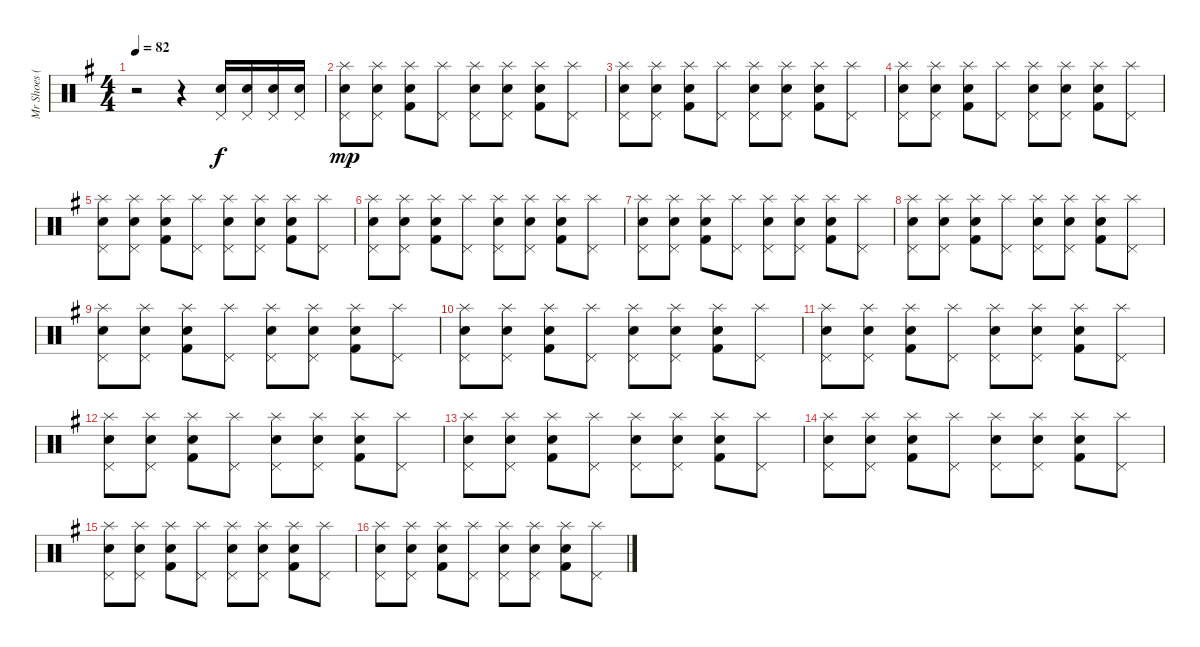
\track ("Mr Shoes (batterie)" "Mr Shoes (") {instrument percussion}
\staff {score}
\articulation defaults
\ts (4 4)
\tempo 82
\clef neutral
\ks g
r.2{dy mp} r.4 ("Electric Snare (hit)" "Pedal Hi-Hat (hit)").16{dy f} ("Electric Snare (hit)" "Pedal Hi-Hat (hit)").16 ("Electric Snare (hit)" "Pedal Hi-Hat (hit)").16 ("Electric Snare (hit)" "Pedal Hi-Hat (hit)").16 |
("Electric Snare (hit)" "Pedal Hi-Hat (hit)" "Splash (hit)").8{dy mp} ("Electric Snare (hit)" "Pedal Hi-Hat (hit)" "Splash (hit)").8 ("Kick (hit) 2" "Snare (hit) 2" "Splash (hit)").8 ("Pedal Hi-Hat (hit)" "Splash (hit)").8 ("Electric Snare (hit)" "Pedal Hi-Hat (hit)" "Splash (hit)").8 ("Electric Snare (hit)" "Pedal Hi-Hat (hit)" "Splash (hit)").8 ("Kick (hit) 2" "Snare (hit) 2" "Splash (hit)").8 ("Pedal Hi-Hat (hit)" "Splash (hit)").8 |
("Electric Snare (hit)" "Pedal Hi-Hat (hit)" "Splash (hit)").8 ("Electric Snare (hit)" "Pedal Hi-Hat (hit)" "Splash (hit)").8 ("Kick (hit) 2" "Snare (hit) 2" "Splash (hit)").8 ("Pedal Hi-Hat (hit)" "Splash (hit)").8 ("Electric Snare (hit)" "Pedal Hi-Hat (hit)" "Splash (hit)").8 ("Electric Snare (hit)" "Pedal Hi-Hat (hit)" "Splash (hit)").8 ("Kick (hit) 2" "Snare (hit) 2" "Splash (hit)").8 ("Pedal Hi-Hat (hit)" "Splash (hit)").8 |
("Electric Snare (hit)" "Pedal Hi-Hat (hit)" "Splash (hit)").8 ("Electric Snare (hit)" "Pedal Hi-Hat (hit)" "Splash (hit)").8 ("Kick (hit) 2" "Snare (hit) 2" "Splash (hit)").8 ("Pedal Hi-Hat (hit)" "Splash (hit)").8 ("Electric Snare (hit)" "Pedal Hi-Hat (hit)" "Splash (hit)").8 ("Electric Snare (hit)" "Pedal Hi-Hat (hit)" "Splash (hit)").8 ("Kick (hit) 2" "Snare (hit) 2" "Splash (hit)").8 ("Pedal Hi-Hat (hit)" "Splash (hit)").8 |
("Electric Snare (hit)" "Pedal Hi-Hat (hit)" "Splash (hit)").8 ("Electric Snare (hit)" "Pedal Hi-Hat (hit)" "Splash (hit)").8 ("Kick (hit) 2" "Snare (hit) 2" "Splash (hit)").8 ("Pedal Hi-Hat (hit)" "Splash (hit)").8 ("Electric Snare (hit)" "Pedal Hi-Hat (hit)" "Splash (hit)").8 ("Electric Snare (hit)" "Pedal Hi-Hat (hit)" "Splash (hit)").8 ("Kick (hit) 2" "Snare (hit) 2" "Splash (hit)").8 ("Pedal Hi-Hat (hit)" "Splash (hit)").8 |
("Electric Snare (hit)" "Pedal Hi-Hat (hit)" "Splash (hit)").8 ("Electric Snare (hit)" "Pedal Hi-Hat (hit)" "Splash (hit)").8 ("Kick (hit) 2" "Snare (hit) 2" "Splash (hit)").8 ("Pedal Hi-Hat (hit)" "Splash (hit)").8 ("Electric Snare (hit)" "Pedal Hi-Hat (hit)" "Splash (hit)").8 ("Electric Snare (hit)" "Pedal Hi-Hat (hit)" "Splash (hit)").8 ("Kick (hit) 2" "Snare (hit) 2" "Splash (hit)").8 ("Pedal Hi-Hat (hit)" "Splash (hit)").8 |
("Electric Snare (hit)" "Pedal Hi-Hat (hit)" "Splash (hit)").8 ("Electric Snare (hit)" "Pedal Hi-Hat (hit)" "Splash (hit)").8 ("Kick (hit) 2" "Snare (hit) 2" "Splash (hit)").8 ("Pedal Hi-Hat (hit)" "Splash (hit)").8 ("Electric Snare (hit)" "Pedal Hi-Hat (hit)" "Splash (hit)").8 ("Electric Snare (hit)" "Pedal Hi-Hat (hit)" "Splash (hit)").8 ("Kick (hit) 2" "Snare (hit) 2" "Splash (hit)").8 ("Pedal Hi-Hat (hit)" "Splash (hit)").8 |
("Electric Snare (hit)" "Pedal Hi-Hat (hit)" "Splash (hit)").8 ("Electric Snare (hit)" "Pedal Hi-Hat (hit)" "Splash (hit)").8 ("Kick (hit) 2" "Snare (hit) 2" "Splash (hit)").8 ("Pedal Hi-Hat (hit)" "Splash (hit)").8 ("Electric Snare (hit)" "Pedal Hi-Hat (hit)" "Splash (hit)").8 ("Electric Snare (hit)" "Pedal Hi-Hat (hit)" "Splash (hit)").8 ("Kick (hit) 2" "Snare (hit) 2" "Splash (hit)").8 ("Pedal Hi-Hat (hit)" "Splash (hit)").8 |
("Electric Snare (hit)" "Pedal Hi-Hat (hit)" "Splash (hit)").8 ("Electric Snare (hit)" "Pedal Hi-Hat (hit)" "Splash (hit)").8 ("Kick (hit) 2" "Snare (hit) 2" "Splash (hit)").8 ("Pedal Hi-Hat (hit)" "Splash (hit)").8 ("Electric Snare (hit)" "Pedal Hi-Hat (hit)" "Splash (hit)").8 ("Electric Snare (hit)" "Pedal Hi-Hat (hit)" "Splash (hit)").8 ("Kick (hit) 2" "Snare (hit) 2" "Splash (hit)").8 ("Pedal Hi-Hat (hit)" "Splash (hit)").8 |
("Electric Snare (hit)" "Pedal Hi-Hat (hit)" "Splash (hit)").8 ("Electric Snare (hit)" "Pedal Hi-Hat (hit)" "Splash (hit)").8 ("Kick (hit) 2" "Snare (hit) 2" "Splash (hit)").8 ("Pedal Hi-Hat (hit)" "Splash (hit)").8 ("Electric Snare (hit)" "Pedal Hi-Hat (hit)" "Splash (hit)").8 ("Electric Snare (hit)" "Pedal Hi-Hat (hit)" "Splash (hit)").8 ("Kick (hit) 2" "Snare (hit) 2" "Splash (hit)").8 ("Pedal Hi-Hat (hit)" "Splash (hit)").8 |
("Electric Snare (hit)" "Pedal Hi-Hat (hit)" "Splash (hit)").8 ("Electric Snare (hit)" "Pedal Hi-Hat (hit)" "Splash (hit)").8 ("Kick (hit) 2" "Snare (hit) 2" "Splash (hit)").8 ("Pedal Hi-Hat (hit)" "Splash (hit)").8 ("Electric Snare (hit)" "Pedal Hi-Hat (hit)" "Splash (hit)").8 ("Electric Snare (hit)" "Pedal Hi-Hat (hit)" "Splash (hit)").8 ("Kick (hit) 2" "Snare (hit) 2" "Splash (hit)").8 ("Pedal Hi-Hat (hit)" "Splash (hit)").8 |
("Electric Snare (hit)" "Pedal Hi-Hat (hit)" "Splash (hit)").8 ("Electric Snare (hit)" "Pedal Hi-Hat (hit)" "Splash (hit)").8 ("Kick (hit) 2" "Snare (hit) 2" "Splash (hit)").8 ("Pedal Hi-Hat (hit)" "Splash (hit)").8 ("Electric Snare (hit)" "Pedal Hi-Hat (hit)" "Splash (hit)").8 ("Electric Snare (hit)" "Pedal Hi-Hat (hit)" "Splash (hit)").8 ("Kick (hit) 2" "Snare (hit) 2" "Splash (hit)").8 ("Pedal Hi-Hat (hit)" "Splash (hit)").8 |
("Electric Snare (hit)" "Pedal Hi-Hat (hit)" "Splash (hit)").8 ("Electric Snare (hit)" "Pedal Hi-Hat (hit)" "Splash (hit)").8 ("Kick (hit) 2" "Snare (hit) 2" "Splash (hit)").8 ("Pedal Hi-Hat (hit)" "Splash (hit)").8 ("Electric Snare (hit)" "Pedal Hi-Hat (hit)" "Splash (hit)").8 ("Electric Snare (hit)" "Pedal Hi-Hat (hit)" "Splash (hit)").8 ("Kick (hit) 2" "Snare (hit) 2" "Splash (hit)").8 ("Pedal Hi-Hat (hit)" "Splash (hit)").8 |
("Electric Snare (hit)" "Pedal Hi-Hat (hit)" "Splash (hit)").8 ("Electric Snare (hit)" "Pedal Hi-Hat (hit)" "Splash (hit)").8 ("Kick (hit) 2" "Snare (hit) 2" "Splash (hit)").8 ("Pedal Hi-Hat (hit)" "Splash (hit)").8 ("Electric Snare (hit)" "Pedal Hi-Hat (hit)" "Splash (hit)").8 ("Electric Snare (hit)" "Pedal Hi-Hat (hit)" "Splash (hit)").8 ("Kick (hit) 2" "Snare (hit) 2" "Splash (hit)").8 ("Pedal Hi-Hat (hit)" "Splash (hit)").8 |
("Electric Snare (hit)" "Pedal Hi-Hat (hit)" "Splash (hit)").8 ("Electric Snare (hit)" "Pedal Hi-Hat (hit)" "Splash (hit)").8 ("Kick (hit) 2" "Snare (hit) 2" "Splash (hit)").8 ("Pedal Hi-Hat (hit)" "Splash (hit)").8 ("Electric Snare (hit)" "Pedal Hi-Hat (hit)" "Splash (hit)").8 ("Electric Snare (hit)" "Pedal Hi-Hat (hit)" "Splash (hit)").8 ("Kick (hit) 2" "Snare (hit) 2" "Splash (hit)").8 ("Pedal Hi-Hat (hit)" "Splash (hit)").8 |
("Electric Snare (hit)" "Pedal Hi-Hat (hit)" "Splash (hit)").8 ("Electric Snare (hit)" "Pedal Hi-Hat (hit)" "Splash (hit)").8 ("Kick (hit) 2" "Snare (hit) 2" "Splash (hit)").8 ("Pedal Hi-Hat (hit)" "Splash (hit)").8 ("Electric Snare (hit)" "Pedal Hi-Hat (hit)" "Splash (hit)").8 ("Electric Snare (hit)" "Pedal Hi-Hat (hit)" "Splash (hit)").8 ("Kick (hit) 2" "Snare (hit) 2" "Splash (hit)").8 ("Pedal Hi-Hat (hit)" "Splash (hit)").8
